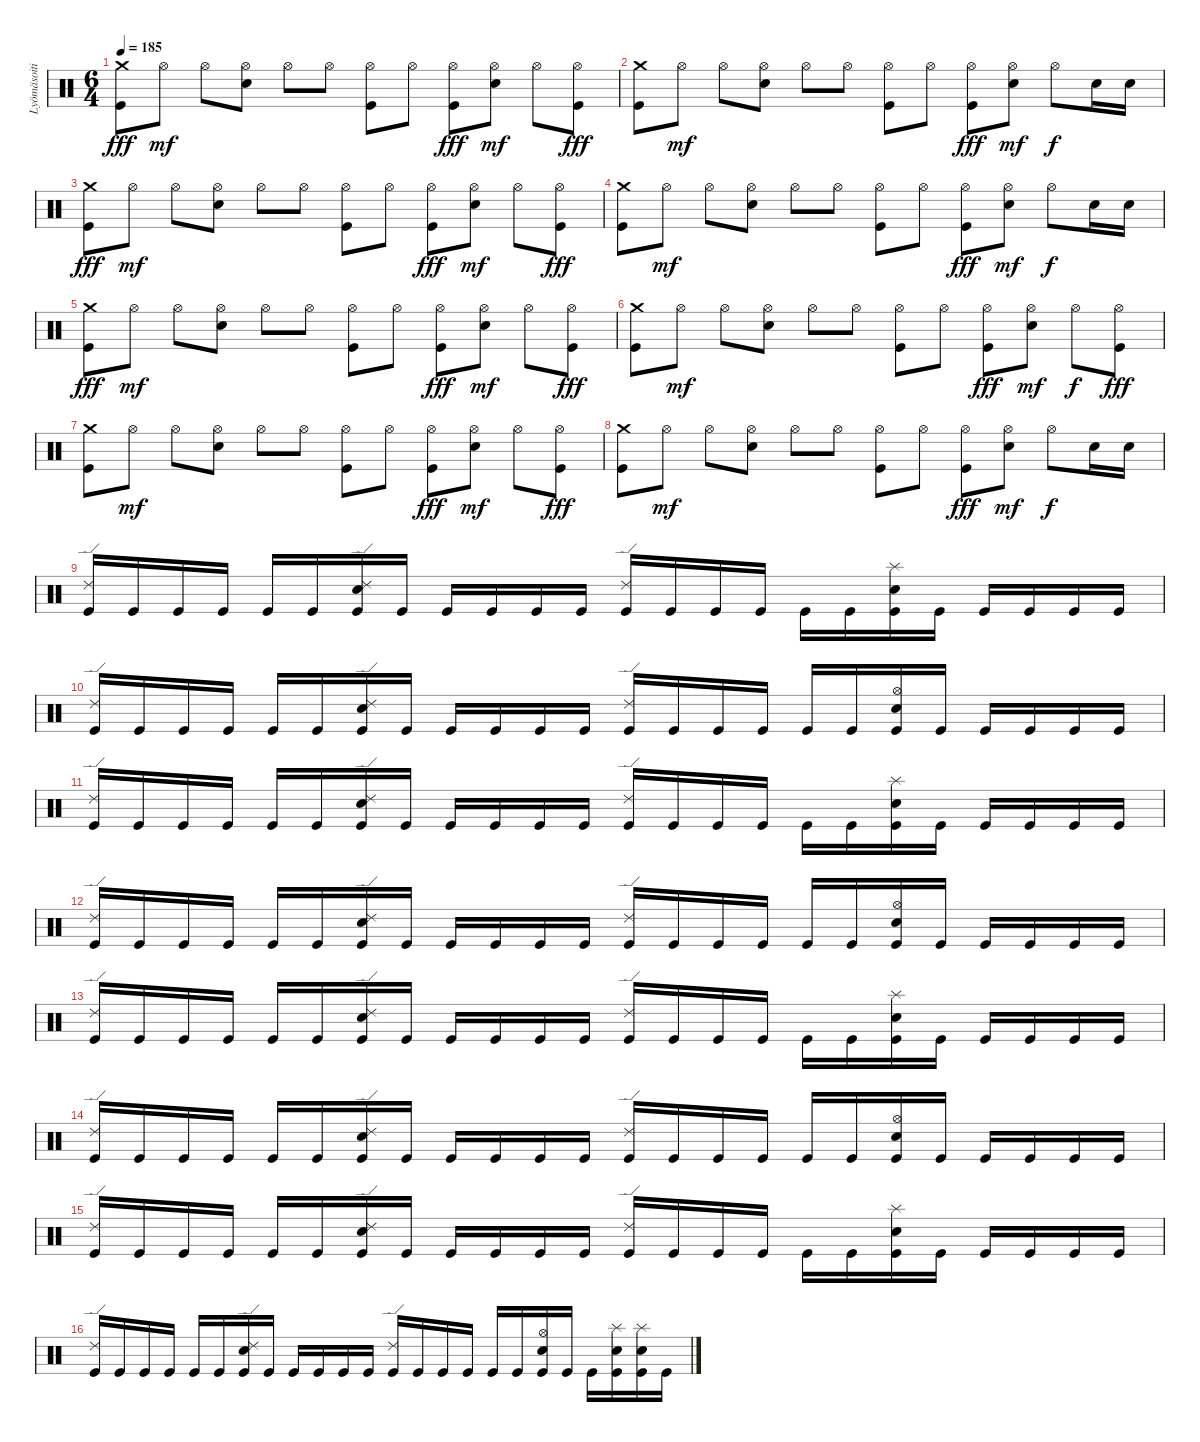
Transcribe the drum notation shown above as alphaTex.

\track ("Lyömäsoitin" "Lyömäsoiti") {instrument percussion}
\staff {score}
\articulation defaults
\ts (6 4)
\tempo 185
\clef neutral
\ks c
("Crash medium (hit)" "Kick (hit)").8{dy fff} "Hi-Hat (open)".8{dy mf} "Hi-Hat (open)".8 ("Hi-Hat (open)" "Electric Snare (hit)").8 "Hi-Hat (open)".8 "Hi-Hat (open)".8 ("Hi-Hat (open)" "Kick (hit)").8 "Hi-Hat (open)".8 ("Hi-Hat (open)" "Kick (hit)").8{dy fff} ("Hi-Hat (open)" "Electric Snare (hit)").8{dy mf} "Hi-Hat (open)".8 ("Hi-Hat (open)" "Kick (hit)").8{dy fff} |
("Crash medium (hit)" "Kick (hit)").8 "Hi-Hat (open)".8{dy mf} "Hi-Hat (open)".8 ("Hi-Hat (open)" "Electric Snare (hit)").8 "Hi-Hat (open)".8 "Hi-Hat (open)".8 ("Hi-Hat (open)" "Kick (hit)").8 "Hi-Hat (open)".8 ("Hi-Hat (open)" "Kick (hit)").8{dy fff} ("Hi-Hat (open)" "Electric Snare (hit)").8{dy mf} "Hi-Hat (open)".8{dy f} "Electric Snare (hit)".16 "Electric Snare (hit)".16 |
("Crash medium (hit)" "Kick (hit)").8{dy fff} "Hi-Hat (open)".8{dy mf} "Hi-Hat (open)".8 ("Hi-Hat (open)" "Electric Snare (hit)").8 "Hi-Hat (open)".8 "Hi-Hat (open)".8 ("Hi-Hat (open)" "Kick (hit)").8 "Hi-Hat (open)".8 ("Hi-Hat (open)" "Kick (hit)").8{dy fff} ("Hi-Hat (open)" "Electric Snare (hit)").8{dy mf} "Hi-Hat (open)".8 ("Hi-Hat (open)" "Kick (hit)").8{dy fff} |
("Crash medium (hit)" "Kick (hit)").8 "Hi-Hat (open)".8{dy mf} "Hi-Hat (open)".8 ("Hi-Hat (open)" "Electric Snare (hit)").8 "Hi-Hat (open)".8 "Hi-Hat (open)".8 ("Hi-Hat (open)" "Kick (hit)").8 "Hi-Hat (open)".8 ("Hi-Hat (open)" "Kick (hit)").8{dy fff} ("Hi-Hat (open)" "Electric Snare (hit)").8{dy mf} "Hi-Hat (open)".8{dy f} "Electric Snare (hit)".16 "Electric Snare (hit)".16 |
("Crash medium (hit)" "Kick (hit)").8{dy fff} "Hi-Hat (open)".8{dy mf} "Hi-Hat (open)".8 ("Hi-Hat (open)" "Electric Snare (hit)").8 "Hi-Hat (open)".8 "Hi-Hat (open)".8 ("Hi-Hat (open)" "Kick (hit)").8 "Hi-Hat (open)".8 ("Hi-Hat (open)" "Kick (hit)").8{dy fff} ("Hi-Hat (open)" "Electric Snare (hit)").8{dy mf} "Hi-Hat (open)".8 ("Hi-Hat (open)" "Kick (hit)").8{dy fff} |
("Crash medium (hit)" "Kick (hit)").8 "Hi-Hat (open)".8{dy mf} "Hi-Hat (open)".8 ("Hi-Hat (open)" "Electric Snare (hit)").8 "Hi-Hat (open)".8 "Hi-Hat (open)".8 ("Hi-Hat (open)" "Kick (hit)").8 "Hi-Hat (open)".8 ("Hi-Hat (open)" "Kick (hit)").8{dy fff} ("Hi-Hat (open)" "Electric Snare (hit)").8{dy mf} "Hi-Hat (open)".8{dy f} ("Hi-Hat (open)" "Kick (hit)").8{dy fff} |
("Crash medium (hit)" "Kick (hit)").8 "Hi-Hat (open)".8{dy mf} "Hi-Hat (open)".8 ("Hi-Hat (open)" "Electric Snare (hit)").8 "Hi-Hat (open)".8 "Hi-Hat (open)".8 ("Hi-Hat (open)" "Kick (hit)").8 "Hi-Hat (open)".8 ("Hi-Hat (open)" "Kick (hit)").8{dy fff} ("Hi-Hat (open)" "Electric Snare (hit)").8{dy mf} "Hi-Hat (open)".8 ("Hi-Hat (open)" "Kick (hit)").8{dy fff} |
("Crash medium (hit)" "Kick (hit)").8 "Hi-Hat (open)".8{dy mf} "Hi-Hat (open)".8 ("Hi-Hat (open)" "Electric Snare (hit)").8 "Hi-Hat (open)".8 "Hi-Hat (open)".8 ("Hi-Hat (open)" "Kick (hit)").8 "Hi-Hat (open)".8 ("Hi-Hat (open)" "Kick (hit)").8{dy fff} ("Hi-Hat (open)" "Electric Snare (hit)").8{dy mf} "Hi-Hat (open)".8{dy f} "Electric Snare (hit)".16 "Electric Snare (hit)".16 |
("Ride (edge) 2" "Kick (hit)").16 "Kick (hit)".16 "Kick (hit)".16 "Kick (hit)".16 "Kick (hit)".16 "Kick (hit)".16 ("Electric Snare (hit)" "Ride (edge) 2" "Kick (hit)").16 "Kick (hit)".16 "Kick (hit)".16 "Kick (hit)".16 "Kick (hit)".16 "Kick (hit)".16 ("Ride (edge) 2" "Kick (hit)").16 "Kick (hit)".16 "Kick (hit)".16 "Kick (hit)".16 "Kick (hit)".16 "Kick (hit)".16 ("Electric Snare (hit)" "Splash (hit)" "Kick (hit)").16 "Kick (hit)".16 "Kick (hit)".16 "Kick (hit)".16 "Kick (hit)".16 "Kick (hit)".16 |
("Ride (edge) 2" "Kick (hit)").16 "Kick (hit)".16 "Kick (hit)".16 "Kick (hit)".16 "Kick (hit)".16 "Kick (hit)".16 ("Electric Snare (hit)" "Ride (edge) 2" "Kick (hit)").16 "Kick (hit)".16 "Kick (hit)".16 "Kick (hit)".16 "Kick (hit)".16 "Kick (hit)".16 ("Ride (edge) 2" "Kick (hit)").16 "Kick (hit)".16 "Kick (hit)".16 "Kick (hit)".16 "Kick (hit)".16 "Kick (hit)".16 ("Electric Snare (hit)" "Hi-Hat (open)" "Kick (hit)").16 "Kick (hit)".16 "Kick (hit)".16 "Kick (hit)".16 "Kick (hit)".16 "Kick (hit)".16 |
("Ride (edge) 2" "Kick (hit)").16 "Kick (hit)".16 "Kick (hit)".16 "Kick (hit)".16 "Kick (hit)".16 "Kick (hit)".16 ("Electric Snare (hit)" "Ride (edge) 2" "Kick (hit)").16 "Kick (hit)".16 "Kick (hit)".16 "Kick (hit)".16 "Kick (hit)".16 "Kick (hit)".16 ("Ride (edge) 2" "Kick (hit)").16 "Kick (hit)".16 "Kick (hit)".16 "Kick (hit)".16 "Kick (hit)".16 "Kick (hit)".16 ("Electric Snare (hit)" "Splash (hit)" "Kick (hit)").16 "Kick (hit)".16 "Kick (hit)".16 "Kick (hit)".16 "Kick (hit)".16 "Kick (hit)".16 |
("Ride (edge) 2" "Kick (hit)").16 "Kick (hit)".16 "Kick (hit)".16 "Kick (hit)".16 "Kick (hit)".16 "Kick (hit)".16 ("Electric Snare (hit)" "Ride (edge) 2" "Kick (hit)").16 "Kick (hit)".16 "Kick (hit)".16 "Kick (hit)".16 "Kick (hit)".16 "Kick (hit)".16 ("Ride (edge) 2" "Kick (hit)").16 "Kick (hit)".16 "Kick (hit)".16 "Kick (hit)".16 "Kick (hit)".16 "Kick (hit)".16 ("Electric Snare (hit)" "Hi-Hat (open)" "Kick (hit)").16 "Kick (hit)".16 "Kick (hit)".16 "Kick (hit)".16 "Kick (hit)".16 "Kick (hit)".16 |
("Ride (edge) 2" "Kick (hit)").16 "Kick (hit)".16 "Kick (hit)".16 "Kick (hit)".16 "Kick (hit)".16 "Kick (hit)".16 ("Electric Snare (hit)" "Ride (edge) 2" "Kick (hit)").16 "Kick (hit)".16 "Kick (hit)".16 "Kick (hit)".16 "Kick (hit)".16 "Kick (hit)".16 ("Ride (edge) 2" "Kick (hit)").16 "Kick (hit)".16 "Kick (hit)".16 "Kick (hit)".16 "Kick (hit)".16 "Kick (hit)".16 ("Electric Snare (hit)" "Splash (hit)" "Kick (hit)").16 "Kick (hit)".16 "Kick (hit)".16 "Kick (hit)".16 "Kick (hit)".16 "Kick (hit)".16 |
("Ride (edge) 2" "Kick (hit)").16 "Kick (hit)".16 "Kick (hit)".16 "Kick (hit)".16 "Kick (hit)".16 "Kick (hit)".16 ("Electric Snare (hit)" "Ride (edge) 2" "Kick (hit)").16 "Kick (hit)".16 "Kick (hit)".16 "Kick (hit)".16 "Kick (hit)".16 "Kick (hit)".16 ("Ride (edge) 2" "Kick (hit)").16 "Kick (hit)".16 "Kick (hit)".16 "Kick (hit)".16 "Kick (hit)".16 "Kick (hit)".16 ("Electric Snare (hit)" "Hi-Hat (open)" "Kick (hit)").16 "Kick (hit)".16 "Kick (hit)".16 "Kick (hit)".16 "Kick (hit)".16 "Kick (hit)".16 |
("Ride (edge) 2" "Kick (hit)").16 "Kick (hit)".16 "Kick (hit)".16 "Kick (hit)".16 "Kick (hit)".16 "Kick (hit)".16 ("Electric Snare (hit)" "Ride (edge) 2" "Kick (hit)").16 "Kick (hit)".16 "Kick (hit)".16 "Kick (hit)".16 "Kick (hit)".16 "Kick (hit)".16 ("Ride (edge) 2" "Kick (hit)").16 "Kick (hit)".16 "Kick (hit)".16 "Kick (hit)".16 "Kick (hit)".16 "Kick (hit)".16 ("Electric Snare (hit)" "Splash (hit)" "Kick (hit)").16 "Kick (hit)".16 "Kick (hit)".16 "Kick (hit)".16 "Kick (hit)".16 "Kick (hit)".16 |
("Ride (edge) 2" "Kick (hit)").16 "Kick (hit)".16 "Kick (hit)".16 "Kick (hit)".16 "Kick (hit)".16 "Kick (hit)".16 ("Electric Snare (hit)" "Ride (edge) 2" "Kick (hit)").16 "Kick (hit)".16 "Kick (hit)".16 "Kick (hit)".16 "Kick (hit)".16 "Kick (hit)".16 ("Ride (edge) 2" "Kick (hit)").16 "Kick (hit)".16 "Kick (hit)".16 "Kick (hit)".16 "Kick (hit)".16 "Kick (hit)".16 ("Electric Snare (hit)" "Hi-Hat (open)" "Kick (hit)").16 "Kick (hit)".16 "Kick (hit)".16 ("Electric Snare (hit)" "Splash (hit)" "Kick (hit)").16 ("Electric Snare (hit)" "Splash (hit)" "Kick (hit)").16 "Kick (hit)".16
